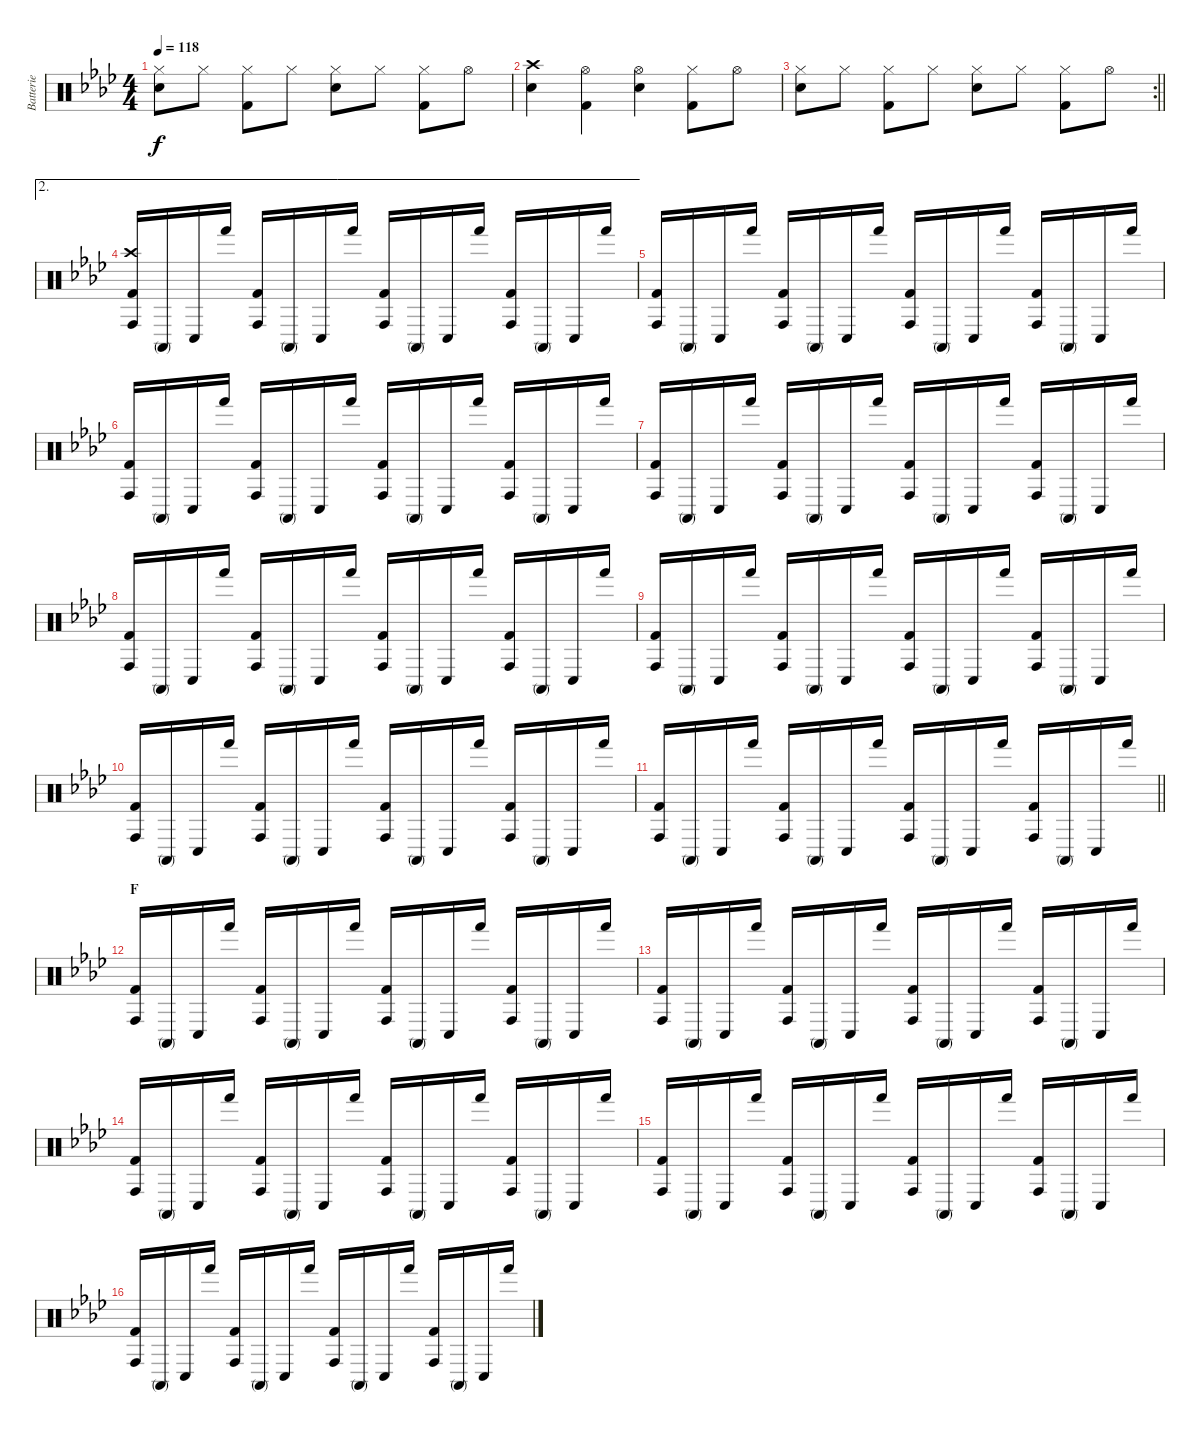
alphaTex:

\track ("Batterie" "Batterie") {instrument percussion}
\staff {score}
\articulation defaults
\ts (4 4)
\tempo 118
\clef neutral
\ks ab
("Hi-Hat (closed)" "Snare (hit) 2").8{dy f} "Hi-Hat (closed)".8 ("Hi-Hat (closed)" "Kick (hit) 2").8 "Hi-Hat (closed)".8 ("Hi-Hat (closed)" "Snare (hit) 2").8 "Hi-Hat (closed)".8 ("Hi-Hat (closed)" "Kick (hit) 2").8 "Hi-Hat (open)".8 |
("Crash high (hit)" "Snare (hit) 2").4 ("Hi-Hat (open)" "Kick (hit) 2").4 ("Hi-Hat (open)" "Snare (hit) 2").4 ("Hi-Hat (closed)" "Kick (hit) 2").8 "Hi-Hat (open)".8 |
\rc 2
\barLineRight lightlight
("Hi-Hat (closed)" "Snare (hit) 2").8 "Hi-Hat (closed)".8 ("Hi-Hat (closed)" "Kick (hit) 2").8 "Hi-Hat (closed)".8 ("Hi-Hat (closed)" "Snare (hit) 2").8 "Hi-Hat (closed)".8 ("Hi-Hat (closed)" "Kick (hit) 2").8 "Hi-Hat (open)".8 |
\ae 2
("Crash high (hit)" "Conga high (hit)" "Kick (hit) 2").16 "Conga high (mute)".16 "Conga low (hit)".16 "Hand (hit)".16 ("Conga high (hit)" "Kick (hit) 2").16 "Conga high (mute)".16 "Conga low (hit)".16 "Hand (hit)".16 ("Conga high (hit)" "Kick (hit) 2").16 "Conga high (mute)".16 "Conga low (hit)".16 "Hand (hit)".16 ("Conga high (hit)" "Kick (hit) 2").16 "Conga high (mute)".16 "Conga low (hit)".16 "Hand (hit)".16 |
("Conga high (hit)" "Kick (hit) 2").16 "Conga high (mute)".16 "Conga low (hit)".16 "Hand (hit)".16 ("Conga high (hit)" "Kick (hit) 2").16 "Conga high (mute)".16 "Conga low (hit)".16 "Hand (hit)".16 ("Conga high (hit)" "Kick (hit) 2").16 "Conga high (mute)".16 "Conga low (hit)".16 "Hand (hit)".16 ("Conga high (hit)" "Kick (hit) 2").16 "Conga high (mute)".16 "Conga low (hit)".16 "Hand (hit)".16 |
("Conga high (hit)" "Kick (hit) 2").16 "Conga high (mute)".16 "Conga low (hit)".16 "Hand (hit)".16 ("Conga high (hit)" "Kick (hit) 2").16 "Conga high (mute)".16 "Conga low (hit)".16 "Hand (hit)".16 ("Conga high (hit)" "Kick (hit) 2").16 "Conga high (mute)".16 "Conga low (hit)".16 "Hand (hit)".16 ("Conga high (hit)" "Kick (hit) 2").16 "Conga high (mute)".16 "Conga low (hit)".16 "Hand (hit)".16 |
("Conga high (hit)" "Kick (hit) 2").16 "Conga high (mute)".16 "Conga low (hit)".16 "Hand (hit)".16 ("Conga high (hit)" "Kick (hit) 2").16 "Conga high (mute)".16 "Conga low (hit)".16 "Hand (hit)".16 ("Conga high (hit)" "Kick (hit) 2").16 "Conga high (mute)".16 "Conga low (hit)".16 "Hand (hit)".16 ("Conga high (hit)" "Kick (hit) 2").16 "Conga high (mute)".16 "Conga low (hit)".16 "Hand (hit)".16 |
("Conga high (hit)" "Kick (hit) 2").16 "Conga high (mute)".16 "Conga low (hit)".16 "Hand (hit)".16 ("Conga high (hit)" "Kick (hit) 2").16 "Conga high (mute)".16 "Conga low (hit)".16 "Hand (hit)".16 ("Conga high (hit)" "Kick (hit) 2").16 "Conga high (mute)".16 "Conga low (hit)".16 "Hand (hit)".16 ("Conga high (hit)" "Kick (hit) 2").16 "Conga high (mute)".16 "Conga low (hit)".16 "Hand (hit)".16 |
("Conga high (hit)" "Kick (hit) 2").16 "Conga high (mute)".16 "Conga low (hit)".16 "Hand (hit)".16 ("Conga high (hit)" "Kick (hit) 2").16 "Conga high (mute)".16 "Conga low (hit)".16 "Hand (hit)".16 ("Conga high (hit)" "Kick (hit) 2").16 "Conga high (mute)".16 "Conga low (hit)".16 "Hand (hit)".16 ("Conga high (hit)" "Kick (hit) 2").16 "Conga high (mute)".16 "Conga low (hit)".16 "Hand (hit)".16 |
("Conga high (hit)" "Kick (hit) 2").16 "Conga high (mute)".16 "Conga low (hit)".16 "Hand (hit)".16 ("Conga high (hit)" "Kick (hit) 2").16 "Conga high (mute)".16 "Conga low (hit)".16 "Hand (hit)".16 ("Conga high (hit)" "Kick (hit) 2").16 "Conga high (mute)".16 "Conga low (hit)".16 "Hand (hit)".16 ("Conga high (hit)" "Kick (hit) 2").16 "Conga high (mute)".16 "Conga low (hit)".16 "Hand (hit)".16 |
\barLineRight lightlight
("Conga high (hit)" "Kick (hit) 2").16 "Conga high (mute)".16 "Conga low (hit)".16 "Hand (hit)".16 ("Conga high (hit)" "Kick (hit) 2").16 "Conga high (mute)".16 "Conga low (hit)".16 "Hand (hit)".16 ("Conga high (hit)" "Kick (hit) 2").16 "Conga high (mute)".16 "Conga low (hit)".16 "Hand (hit)".16 ("Conga high (hit)" "Kick (hit) 2").16 "Conga high (mute)".16 "Conga low (hit)".16 "Hand (hit)".16 |
\section ("" "F")
("Conga high (hit)" "Kick (hit) 2").16 "Conga high (mute)".16 "Conga low (hit)".16 "Hand (hit)".16 ("Conga high (hit)" "Kick (hit) 2").16 "Conga high (mute)".16 "Conga low (hit)".16 "Hand (hit)".16 ("Conga high (hit)" "Kick (hit) 2").16 "Conga high (mute)".16 "Conga low (hit)".16 "Hand (hit)".16 ("Conga high (hit)" "Kick (hit) 2").16 "Conga high (mute)".16 "Conga low (hit)".16 "Hand (hit)".16 |
("Conga high (hit)" "Kick (hit) 2").16 "Conga high (mute)".16 "Conga low (hit)".16 "Hand (hit)".16 ("Conga high (hit)" "Kick (hit) 2").16 "Conga high (mute)".16 "Conga low (hit)".16 "Hand (hit)".16 ("Conga high (hit)" "Kick (hit) 2").16 "Conga high (mute)".16 "Conga low (hit)".16 "Hand (hit)".16 ("Conga high (hit)" "Kick (hit) 2").16 "Conga high (mute)".16 "Conga low (hit)".16 "Hand (hit)".16 |
("Conga high (hit)" "Kick (hit) 2").16 "Conga high (mute)".16 "Conga low (hit)".16 "Hand (hit)".16 ("Conga high (hit)" "Kick (hit) 2").16 "Conga high (mute)".16 "Conga low (hit)".16 "Hand (hit)".16 ("Conga high (hit)" "Kick (hit) 2").16 "Conga high (mute)".16 "Conga low (hit)".16 "Hand (hit)".16 ("Conga high (hit)" "Kick (hit) 2").16 "Conga high (mute)".16 "Conga low (hit)".16 "Hand (hit)".16 |
("Conga high (hit)" "Kick (hit) 2").16 "Conga high (mute)".16 "Conga low (hit)".16 "Hand (hit)".16 ("Conga high (hit)" "Kick (hit) 2").16 "Conga high (mute)".16 "Conga low (hit)".16 "Hand (hit)".16 ("Conga high (hit)" "Kick (hit) 2").16 "Conga high (mute)".16 "Conga low (hit)".16 "Hand (hit)".16 ("Conga high (hit)" "Kick (hit) 2").16 "Conga high (mute)".16 "Conga low (hit)".16 "Hand (hit)".16 |
("Conga high (hit)" "Kick (hit) 2").16 "Conga high (mute)".16 "Conga low (hit)".16 "Hand (hit)".16 ("Conga high (hit)" "Kick (hit) 2").16 "Conga high (mute)".16 "Conga low (hit)".16 "Hand (hit)".16 ("Conga high (hit)" "Kick (hit) 2").16 "Conga high (mute)".16 "Conga low (hit)".16 "Hand (hit)".16 ("Conga high (hit)" "Kick (hit) 2").16 "Conga high (mute)".16 "Conga low (hit)".16 "Hand (hit)".16
